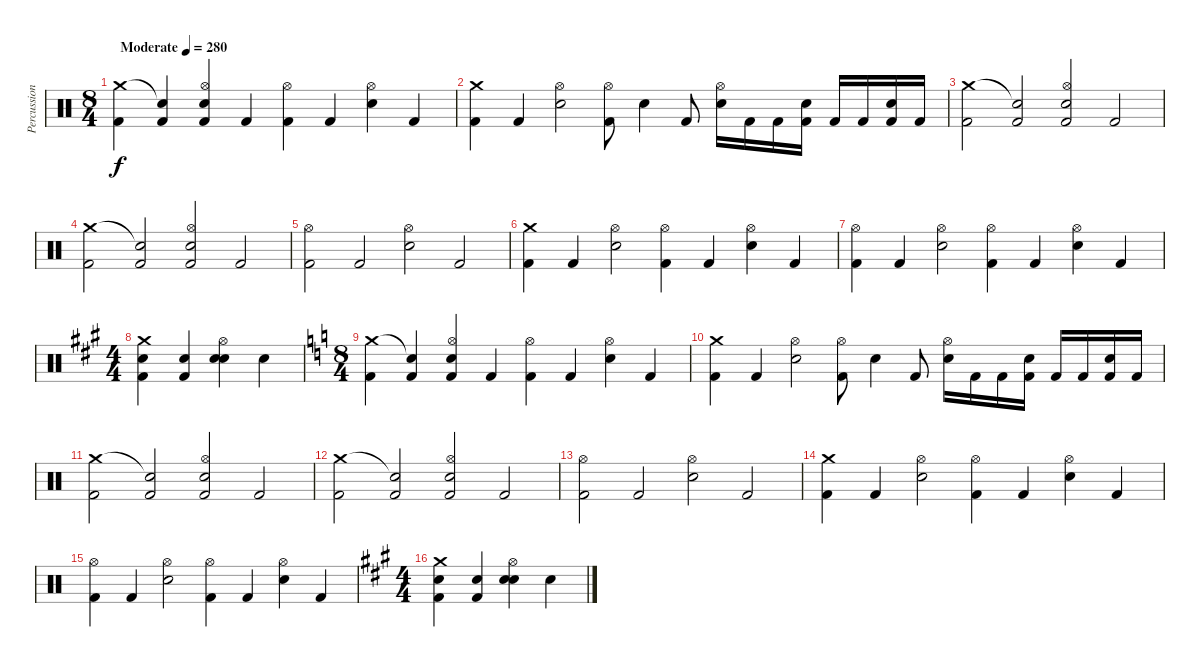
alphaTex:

\track ("Percussion" "Percussion") {instrument percussion}
\staff {score}
\articulation defaults
\ts (8 4)
\tempo (280 "Moderate")
\clef neutral
\ks c
("Crash medium (hit)" "Kick (hit) 2").4{dy f} ("Snare (hit)"{t} "Kick (hit) 2").4 ("Hi-Hat (open)" "Electric Snare (hit)" "Kick (hit) 2").4 "Kick (hit) 2".4 ("Hi-Hat (open)" "Kick (hit) 2").4 "Kick (hit) 2".4 ("Hi-Hat (open)" "Electric Snare (hit)").4 "Kick (hit) 2".4 |
("Crash medium (hit)" "Kick (hit) 2").4 "Kick (hit) 2".4 ("Hi-Hat (open)" "Electric Snare (hit)").2 ("Hi-Hat (open)" "Kick (hit) 2").8 "Electric Snare (hit)".4 "Kick (hit) 2".8 ("Hi-Hat (open)" "Electric Snare (hit)").16 "Kick (hit) 2".16 "Kick (hit) 2".16 ("Electric Snare (hit)" "Kick (hit) 2").16 "Kick (hit) 2".16 "Kick (hit) 2".16 ("Electric Snare (hit)" "Kick (hit) 2").16 "Kick (hit) 2".16 |
("Crash medium (hit)" "Kick (hit) 2").2 ("Snare (hit)"{t} "Kick (hit) 2").2 ("Hi-Hat (open)" "Electric Snare (hit)" "Kick (hit) 2").2 "Kick (hit) 2".2 |
("Crash medium (hit)" "Kick (hit) 2").2 ("Snare (hit)"{t} "Kick (hit) 2").2 ("Hi-Hat (open)" "Electric Snare (hit)" "Kick (hit) 2").2 "Kick (hit) 2".2 |
("Hi-Hat (open)" "Kick (hit) 2").2 "Kick (hit) 2".2 ("Hi-Hat (open)" "Electric Snare (hit)").2 "Kick (hit) 2".2 |
("Crash medium (hit)" "Kick (hit) 2").4 "Kick (hit) 2".4 ("Hi-Hat (open)" "Electric Snare (hit)").2 ("Hi-Hat (open)" "Kick (hit) 2").4 "Kick (hit) 2".4 ("Hi-Hat (open)" "Electric Snare (hit)").4 "Kick (hit) 2".4 |
("Hi-Hat (open)" "Kick (hit) 2").4 "Kick (hit) 2".4 ("Hi-Hat (open)" "Electric Snare (hit)").2 ("Hi-Hat (open)" "Kick (hit) 2").4 "Kick (hit) 2".4 ("Hi-Hat (open)" "Electric Snare (hit)").4 "Kick (hit) 2".4 |
\ts (4 4)
\ks a
("Crash medium (hit)" "Electric Snare (hit)" "Kick (hit) 2").4 ("Electric Snare (hit)" "Kick (hit) 2").4 ("Hi-Hat (open)" "Electric Snare (hit)" "Electric Snare (hit)").4 "Electric Snare (hit)".4 |
\ts (8 4)
\ks c
("Crash medium (hit)" "Kick (hit) 2").4 ("Snare (hit)"{t} "Kick (hit) 2").4 ("Hi-Hat (open)" "Electric Snare (hit)" "Kick (hit) 2").4 "Kick (hit) 2".4 ("Hi-Hat (open)" "Kick (hit) 2").4 "Kick (hit) 2".4 ("Hi-Hat (open)" "Electric Snare (hit)").4 "Kick (hit) 2".4 |
("Crash medium (hit)" "Kick (hit) 2").4 "Kick (hit) 2".4 ("Hi-Hat (open)" "Electric Snare (hit)").2 ("Hi-Hat (open)" "Kick (hit) 2").8 "Electric Snare (hit)".4 "Kick (hit) 2".8 ("Hi-Hat (open)" "Electric Snare (hit)").16 "Kick (hit) 2".16 "Kick (hit) 2".16 ("Electric Snare (hit)" "Kick (hit) 2").16 "Kick (hit) 2".16 "Kick (hit) 2".16 ("Electric Snare (hit)" "Kick (hit) 2").16 "Kick (hit) 2".16 |
("Crash medium (hit)" "Kick (hit) 2").2 ("Snare (hit)"{t} "Kick (hit) 2").2 ("Hi-Hat (open)" "Electric Snare (hit)" "Kick (hit) 2").2 "Kick (hit) 2".2 |
("Crash medium (hit)" "Kick (hit) 2").2 ("Snare (hit)"{t} "Kick (hit) 2").2 ("Hi-Hat (open)" "Electric Snare (hit)" "Kick (hit) 2").2 "Kick (hit) 2".2 |
("Hi-Hat (open)" "Kick (hit) 2").2 "Kick (hit) 2".2 ("Hi-Hat (open)" "Electric Snare (hit)").2 "Kick (hit) 2".2 |
("Crash medium (hit)" "Kick (hit) 2").4 "Kick (hit) 2".4 ("Hi-Hat (open)" "Electric Snare (hit)").2 ("Hi-Hat (open)" "Kick (hit) 2").4 "Kick (hit) 2".4 ("Hi-Hat (open)" "Electric Snare (hit)").4 "Kick (hit) 2".4 |
("Hi-Hat (open)" "Kick (hit) 2").4 "Kick (hit) 2".4 ("Hi-Hat (open)" "Electric Snare (hit)").2 ("Hi-Hat (open)" "Kick (hit) 2").4 "Kick (hit) 2".4 ("Hi-Hat (open)" "Electric Snare (hit)").4 "Kick (hit) 2".4 |
\ts (4 4)
\ks a
("Crash medium (hit)" "Electric Snare (hit)" "Kick (hit) 2").4 ("Electric Snare (hit)" "Kick (hit) 2").4 ("Hi-Hat (open)" "Electric Snare (hit)" "Electric Snare (hit)").4 "Electric Snare (hit)".4
